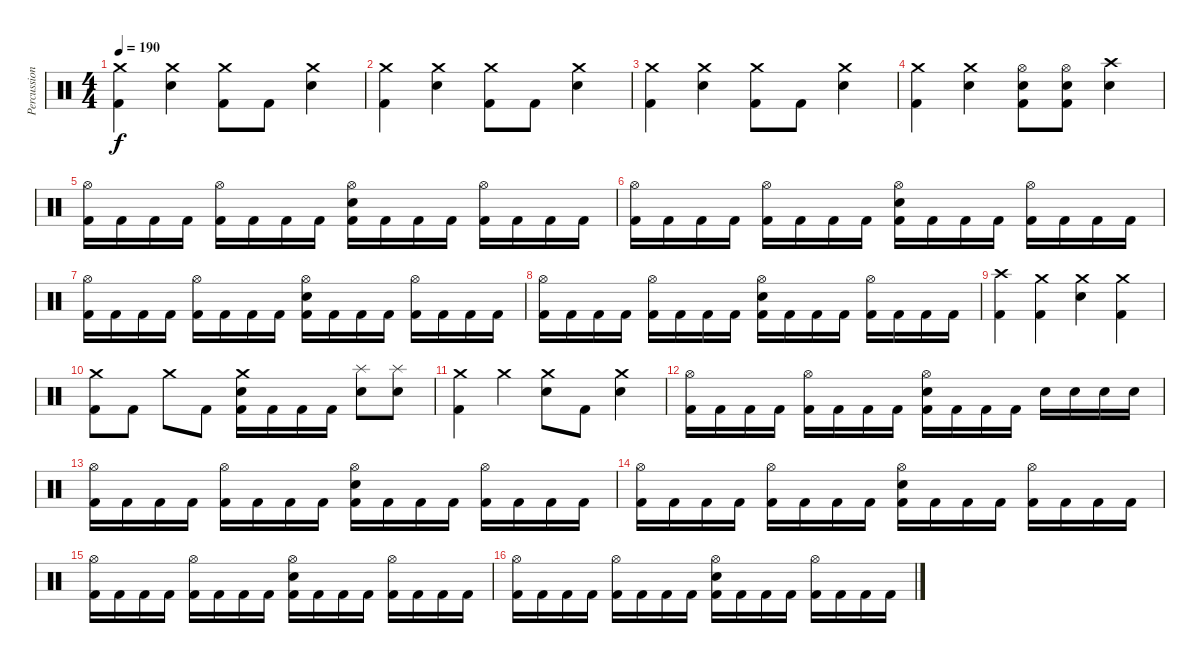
\track ("Percussion" "Percussion") {instrument percussion}
\staff {score}
\articulation defaults
\ts (4 4)
\tempo 190
\clef neutral
\ks c
("Crash medium (hit)" "Kick (hit) 2").4{dy f} ("Crash medium (hit)" "Electric Snare (hit)").4 ("Crash medium (hit)" "Kick (hit) 2").8 "Kick (hit) 2".8 ("Crash medium (hit)" "Electric Snare (hit)").4 |
("Crash medium (hit)" "Kick (hit) 2").4 ("Crash medium (hit)" "Electric Snare (hit)").4 ("Crash medium (hit)" "Kick (hit) 2").8 "Kick (hit) 2".8 ("Crash medium (hit)" "Electric Snare (hit)").4 |
("Crash medium (hit)" "Kick (hit) 2").4 ("Crash medium (hit)" "Electric Snare (hit)").4 ("Crash medium (hit)" "Kick (hit) 2").8 "Kick (hit) 2".8 ("Crash medium (hit)" "Electric Snare (hit)").4 |
("Crash medium (hit)" "Kick (hit) 2").4 ("Crash medium (hit)" "Electric Snare (hit)").4 ("Hi-Hat (open)" "Electric Snare (hit)" "Kick (hit) 2").8 ("Hi-Hat (open)" "Electric Snare (hit)" "Kick (hit) 2").8 ("Crash high (hit)" "Electric Snare (hit)").4 |
("Hi-Hat (open)" "Kick (hit) 2").16 "Kick (hit) 2".16 "Kick (hit) 2".16 "Kick (hit) 2".16 ("Hi-Hat (open)" "Kick (hit) 2").16 "Kick (hit) 2".16 "Kick (hit) 2".16 "Kick (hit) 2".16 ("Hi-Hat (open)" "Electric Snare (hit)" "Kick (hit) 2").16 "Kick (hit) 2".16 "Kick (hit) 2".16 "Kick (hit) 2".16 ("Hi-Hat (open)" "Kick (hit) 2").16 "Kick (hit) 2".16 "Kick (hit) 2".16 "Kick (hit) 2".16 |
("Hi-Hat (open)" "Kick (hit) 2").16 "Kick (hit) 2".16 "Kick (hit) 2".16 "Kick (hit) 2".16 ("Hi-Hat (open)" "Kick (hit) 2").16 "Kick (hit) 2".16 "Kick (hit) 2".16 "Kick (hit) 2".16 ("Hi-Hat (open)" "Electric Snare (hit)" "Kick (hit) 2").16 "Kick (hit) 2".16 "Kick (hit) 2".16 "Kick (hit) 2".16 ("Hi-Hat (open)" "Kick (hit) 2").16 "Kick (hit) 2".16 "Kick (hit) 2".16 "Kick (hit) 2".16 |
("Hi-Hat (open)" "Kick (hit) 2").16 "Kick (hit) 2".16 "Kick (hit) 2".16 "Kick (hit) 2".16 ("Hi-Hat (open)" "Kick (hit) 2").16 "Kick (hit) 2".16 "Kick (hit) 2".16 "Kick (hit) 2".16 ("Hi-Hat (open)" "Electric Snare (hit)" "Kick (hit) 2").16 "Kick (hit) 2".16 "Kick (hit) 2".16 "Kick (hit) 2".16 ("Hi-Hat (open)" "Kick (hit) 2").16 "Kick (hit) 2".16 "Kick (hit) 2".16 "Kick (hit) 2".16 |
("Hi-Hat (open)" "Kick (hit) 2").16 "Kick (hit) 2".16 "Kick (hit) 2".16 "Kick (hit) 2".16 ("Hi-Hat (open)" "Kick (hit) 2").16 "Kick (hit) 2".16 "Kick (hit) 2".16 "Kick (hit) 2".16 ("Hi-Hat (open)" "Electric Snare (hit)" "Kick (hit) 2").16 "Kick (hit) 2".16 "Kick (hit) 2".16 "Kick (hit) 2".16 ("Hi-Hat (open)" "Kick (hit) 2").16 "Kick (hit) 2".16 "Kick (hit) 2".16 "Kick (hit) 2".16 |
("Crash high (hit)" "Kick (hit) 2").4 ("Crash medium (hit)" "Kick (hit) 2").4 ("Crash medium (hit)" "Electric Snare (hit)").4 ("Crash medium (hit)" "Kick (hit) 2").4 |
("Crash medium (hit)" "Kick (hit) 2").8 "Kick (hit) 2".8 "Crash medium (hit)".8 "Kick (hit) 2".8 ("Crash medium (hit)" "Electric Snare (hit)" "Kick (hit) 2").16 "Kick (hit) 2".16 "Kick (hit) 2".16 "Kick (hit) 2".16 ("Splash (hit)" "Electric Snare (hit)").8 ("Splash (hit)" "Electric Snare (hit)").8 |
("Crash medium (hit)" "Kick (hit) 2").4 "Crash medium (hit)".4 ("Crash medium (hit)" "Electric Snare (hit)").8 "Kick (hit) 2".8 ("Crash medium (hit)" "Electric Snare (hit)").4 |
("Hi-Hat (open)" "Kick (hit) 2").16 "Kick (hit) 2".16 "Kick (hit) 2".16 "Kick (hit) 2".16 ("Hi-Hat (open)" "Kick (hit) 2").16 "Kick (hit) 2".16 "Kick (hit) 2".16 "Kick (hit) 2".16 ("Hi-Hat (open)" "Electric Snare (hit)" "Kick (hit) 2").16 "Kick (hit) 2".16 "Kick (hit) 2".16 "Kick (hit) 2".16 "Electric Snare (hit)".16 "Electric Snare (hit)".16 "Electric Snare (hit)".16 "Electric Snare (hit)".16 |
("Hi-Hat (open)" "Kick (hit) 2").16 "Kick (hit) 2".16 "Kick (hit) 2".16 "Kick (hit) 2".16 ("Hi-Hat (open)" "Kick (hit) 2").16 "Kick (hit) 2".16 "Kick (hit) 2".16 "Kick (hit) 2".16 ("Hi-Hat (open)" "Electric Snare (hit)" "Kick (hit) 2").16 "Kick (hit) 2".16 "Kick (hit) 2".16 "Kick (hit) 2".16 ("Hi-Hat (open)" "Kick (hit) 2").16 "Kick (hit) 2".16 "Kick (hit) 2".16 "Kick (hit) 2".16 |
("Hi-Hat (open)" "Kick (hit) 2").16 "Kick (hit) 2".16 "Kick (hit) 2".16 "Kick (hit) 2".16 ("Hi-Hat (open)" "Kick (hit) 2").16 "Kick (hit) 2".16 "Kick (hit) 2".16 "Kick (hit) 2".16 ("Hi-Hat (open)" "Electric Snare (hit)" "Kick (hit) 2").16 "Kick (hit) 2".16 "Kick (hit) 2".16 "Kick (hit) 2".16 ("Hi-Hat (open)" "Kick (hit) 2").16 "Kick (hit) 2".16 "Kick (hit) 2".16 "Kick (hit) 2".16 |
("Hi-Hat (open)" "Kick (hit) 2").16 "Kick (hit) 2".16 "Kick (hit) 2".16 "Kick (hit) 2".16 ("Hi-Hat (open)" "Kick (hit) 2").16 "Kick (hit) 2".16 "Kick (hit) 2".16 "Kick (hit) 2".16 ("Hi-Hat (open)" "Electric Snare (hit)" "Kick (hit) 2").16 "Kick (hit) 2".16 "Kick (hit) 2".16 "Kick (hit) 2".16 ("Hi-Hat (open)" "Kick (hit) 2").16 "Kick (hit) 2".16 "Kick (hit) 2".16 "Kick (hit) 2".16 |
("Hi-Hat (open)" "Kick (hit) 2").16 "Kick (hit) 2".16 "Kick (hit) 2".16 "Kick (hit) 2".16 ("Hi-Hat (open)" "Kick (hit) 2").16 "Kick (hit) 2".16 "Kick (hit) 2".16 "Kick (hit) 2".16 ("Hi-Hat (open)" "Electric Snare (hit)" "Kick (hit) 2").16 "Kick (hit) 2".16 "Kick (hit) 2".16 "Kick (hit) 2".16 ("Hi-Hat (open)" "Kick (hit) 2").16 "Kick (hit) 2".16 "Kick (hit) 2".16 "Kick (hit) 2".16
